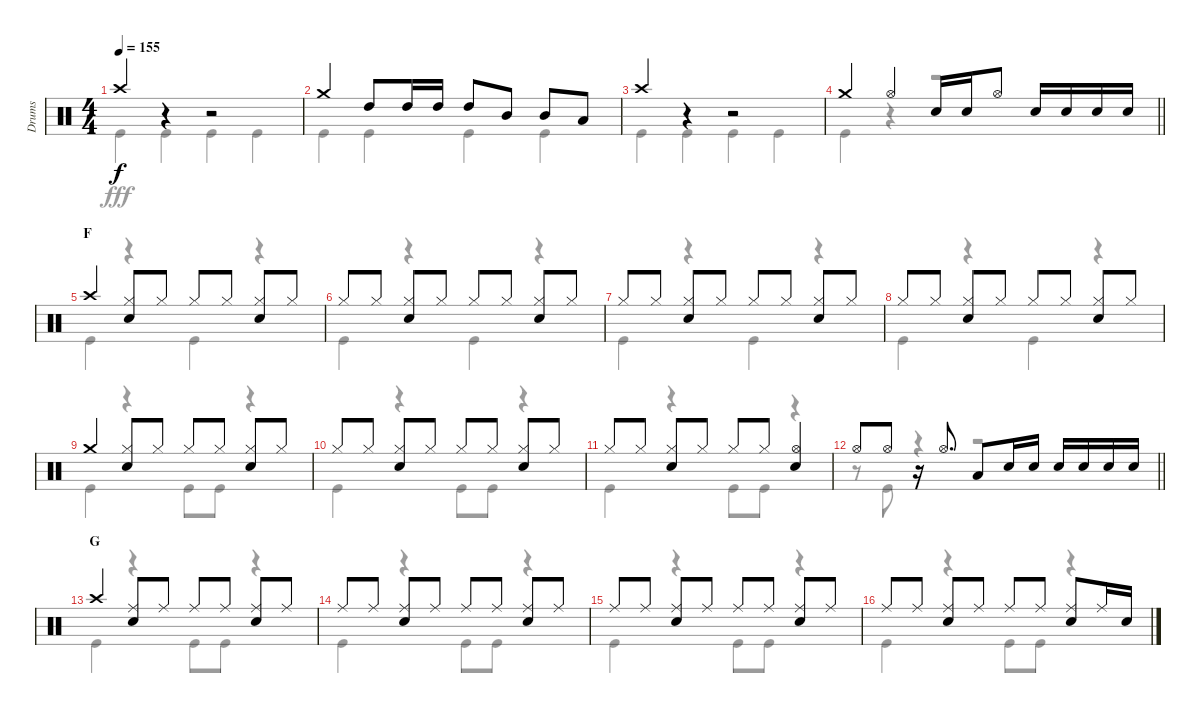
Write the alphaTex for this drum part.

\track ("Drums" "Drums") {instrument percussion}
\staff {score}
\articulation defaults
\voice
\ts (4 4)
\tempo 155
\clef neutral
\ks c "Crash high (hit)".4{dy f}
r.4 r.2 |
"Crash medium (hit)".4 "High Tom (hit)".8 "High Tom (hit)".16 "High Tom (hit)".16 "High Tom (hit)".8 "Mid Tom (hit)".8 "Mid Tom (hit)".8 "Low Tom (hit)".8 |
"Crash high (hit)".4 r.4 r.2 |
\barLineRight lightlight "Crash medium (hit)".4 "Hi-Hat (open)".4 "Snare (hit) 2".16 "Snare (hit) 2".16 "Hi-Hat (open)".8 "Snare (hit) 2".16 "Snare (hit) 2".16 "Snare (hit) 2".16 "Snare (hit) 2".16
|
\section ("" "F")
"Crash high (hit)".4 ("Hi-Hat (closed)" "Snare (hit) 2").8 "Hi-Hat (closed)".8 "Hi-Hat (closed)".8 "Hi-Hat (closed)".8 ("Hi-Hat (closed)" "Snare (hit) 2").8 "Hi-Hat (closed)".8 |
"Hi-Hat (closed)".8 "Hi-Hat (closed)".8 ("Hi-Hat (closed)" "Snare (hit) 2").8 "Hi-Hat (closed)".8 "Hi-Hat (closed)".8 "Hi-Hat (closed)".8 ("Hi-Hat (closed)" "Snare (hit) 2").8 "Hi-Hat (closed)".8 |
"Hi-Hat (closed)".8 "Hi-Hat (closed)".8 ("Hi-Hat (closed)" "Snare (hit) 2").8 "Hi-Hat (closed)".8 "Hi-Hat (closed)".8 "Hi-Hat (closed)".8 ("Hi-Hat (closed)" "Snare (hit) 2").8 "Hi-Hat (closed)".8 |
"Hi-Hat (closed)".8 "Hi-Hat (closed)".8 ("Hi-Hat (closed)" "Snare (hit) 2").8 "Hi-Hat (closed)".8 "Hi-Hat (closed)".8 "Hi-Hat (closed)".8 ("Hi-Hat (closed)" "Snare (hit) 2").8 "Hi-Hat (closed)".8 |
"Crash medium (hit)".4 ("Hi-Hat (closed)" "Snare (hit) 2").8 "Hi-Hat (closed)".8 "Hi-Hat (closed)".8 "Hi-Hat (closed)".8 ("Hi-Hat (closed)" "Snare (hit) 2").8 "Hi-Hat (closed)".8 |
"Hi-Hat (closed)".8 "Hi-Hat (closed)".8 ("Hi-Hat (closed)" "Snare (hit) 2").8 "Hi-Hat (closed)".8 "Hi-Hat (closed)".8 "Hi-Hat (closed)".8 ("Hi-Hat (closed)" "Snare (hit) 2").8 "Hi-Hat (closed)".8 |
"Hi-Hat (closed)".8 "Hi-Hat (closed)".8 ("Hi-Hat (closed)" "Snare (hit) 2").8 "Hi-Hat (closed)".8 "Hi-Hat (closed)".8 "Hi-Hat (closed)".8 ("Hi-Hat (open)" "Snare (hit) 2").4 |
\barLineRight lightlight "Hi-Hat (open)".8 "Hi-Hat (open)".8
r.16 "Hi-Hat (open)".8{d} "Low Tom (hit)".8 "Snare (hit) 2".16 "Snare (hit) 2".16 "Snare (hit) 2".16 "Snare (hit) 2".16 "Snare (hit) 2".16 "Snare (hit) 2".16 |
\section ("" "G")
"Crash high (hit)".4 ("Ride (middle)" "Snare (hit) 2").8 "Ride (middle)".8 "Ride (middle)".8 "Ride (middle)".8 ("Ride (middle)" "Snare (hit) 2").8 "Ride (middle)".8 |
"Ride (middle)".8 "Ride (middle)".8 ("Ride (middle)" "Snare (hit) 2").8 "Ride (middle)".8 "Ride (middle)".8 "Ride (middle)".8 ("Ride (middle)" "Snare (hit) 2").8 "Ride (middle)".8 |
"Ride (middle)".8 "Ride (middle)".8 ("Ride (middle)" "Snare (hit) 2").8 "Ride (middle)".8 "Ride (middle)".8 "Ride (middle)".8 ("Ride (middle)" "Snare (hit) 2").8 "Ride (middle)".8 |
"Ride (middle)".8 "Ride (middle)".8 ("Ride (middle)" "Snare (hit) 2").8 "Ride (middle)".8 "Ride (middle)".8 "Ride (middle)".8 ("Ride (middle)" "Snare (hit) 2").8 "Ride (middle)".16 "Snare (hit) 2".16
\voice
\clef neutral
\ottava regular
\simile none
\ks c "Kick (hit)".4{dy fff} "Kick (hit)".4 "Kick (hit)".4 "Kick (hit)".4
|
"Kick (hit)".4 "Kick (hit)".4 "Kick (hit)".4 "Kick (hit)".4 |
"Kick (hit)".4 "Kick (hit)".4 "Kick (hit)".4 "Kick (hit)".4 |
\barLineRight lightlight "Kick (hit)".4
r.4 r.2 |
"Kick (hit)".4 r.4 "Kick (hit)".4 r.4 |
"Kick (hit)".4 r.4 "Kick (hit)".4 r.4 |
"Kick (hit)".4 r.4 "Kick (hit)".4 r.4 |
"Kick (hit)".4 r.4 "Kick (hit)".4 r.4 |
"Kick (hit)".4 r.4 "Kick (hit)".8 "Kick (hit)".8 r.4 |
"Kick (hit)".4 r.4 "Kick (hit)".8 "Kick (hit)".8 r.4 |
"Kick (hit)".4 r.4 "Kick (hit)".8 "Kick (hit)".8 r.4 |
\barLineRight lightlight
r.8 "Kick (hit)".8 r.4 r.2 |
"Kick (hit)".4 r.4 "Kick (hit)".8 "Kick (hit)".8 r.4 |
"Kick (hit)".4 r.4 "Kick (hit)".8 "Kick (hit)".8 r.4 |
"Kick (hit)".4 r.4 "Kick (hit)".8 "Kick (hit)".8 r.4 |
"Kick (hit)".4 r.4 "Kick (hit)".8 "Kick (hit)".8 r.4
